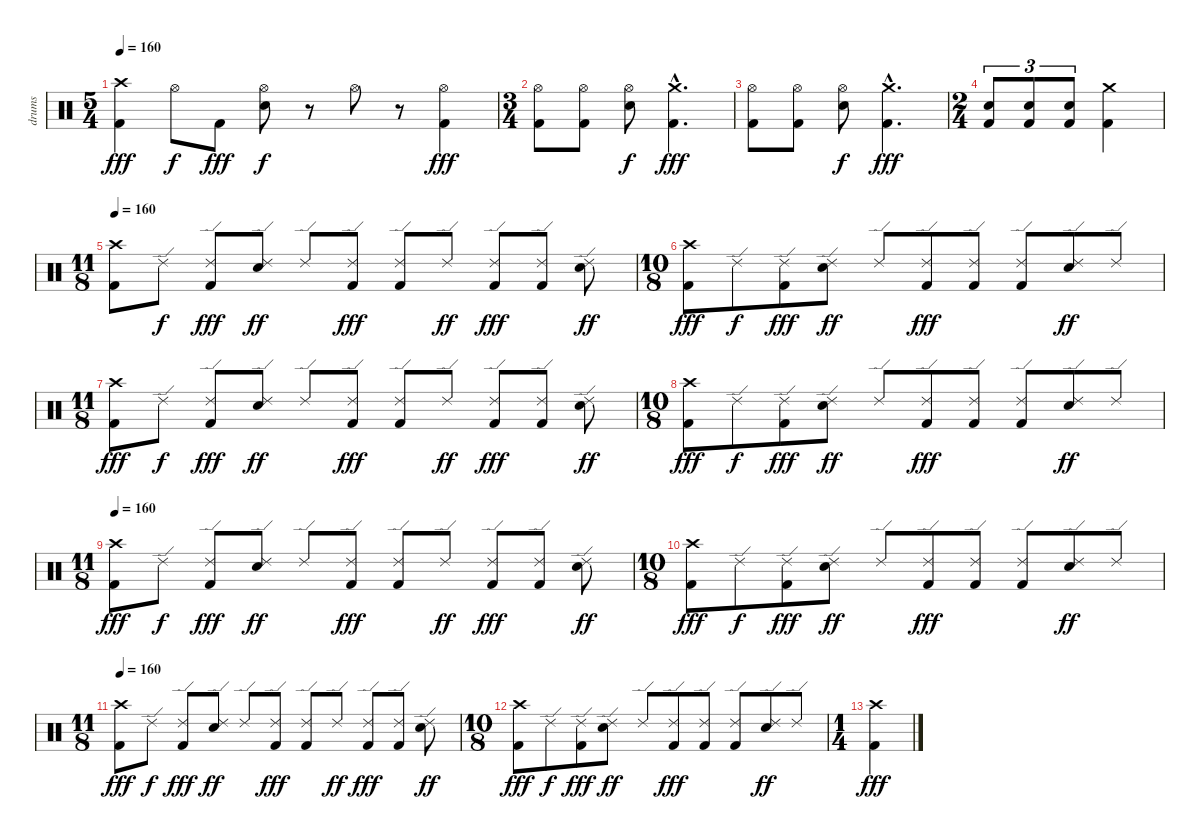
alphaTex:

\track ("drums" "drums") {instrument percussion}
\staff {score}
\articulation defaults
\ts (5 4)
\tempo 160
\clef neutral
\ks c
("Crash high (hit)" "Kick (hit) 2").4{dy fff} "Hi-Hat (open)".8{dy f} "Kick (hit) 2".8{dy fff} ("Hi-Hat (open)" "Snare (hit) 2").8{dy f} r.8 "Hi-Hat (open)".8 r.8 ("Hi-Hat (open)" "Kick (hit) 2").4{dy fff} |
\ts (3 4)
("Hi-Hat (open)" "Kick (hit) 2").8 ("Hi-Hat (open)" "Kick (hit) 2").8 ("Hi-Hat (open)" "Snare (hit) 2").8{dy f} ("Crash medium (hit)"{hac} "Kick (hit) 2"{hac}).4{d dy fff} |
("Hi-Hat (open)" "Kick (hit) 2").8 ("Hi-Hat (open)" "Kick (hit) 2").8 ("Hi-Hat (open)" "Snare (hit) 2").8{dy f} ("Crash medium (hit)"{hac} "Kick (hit) 2"{hac}).4{d dy fff} |
\ts (2 4)
("Snare (hit) 2" "Kick (hit) 2").8{tu (3 2)} ("Snare (hit) 2" "Kick (hit) 2").8{tu (3 2)} ("Snare (hit) 2" "Kick (hit) 2").8{tu (3 2)} ("Crash medium (hit)" "Kick (hit) 2").4 |
\ts (11 8)
\tempo 160
("Crash high (hit)" "Kick (hit) 2").8 "Ride (edge) 2".8{dy f} ("Ride (edge) 2" "Kick (hit) 2").8{dy fff} ("Ride (edge) 2" "Snare (hit) 2").8{dy ff} "Ride (edge) 2".8 ("Ride (edge) 2" "Kick (hit) 2").8{dy fff} ("Ride (edge) 2" "Kick (hit) 2").8 "Ride (edge) 2".8{dy ff} ("Ride (edge) 2" "Kick (hit) 2").8{dy fff} ("Ride (edge) 2" "Kick (hit) 2").8 ("Ride (edge) 2" "Snare (hit) 2").8{dy ff} |
\ts (10 8)
("Crash high (hit)" "Kick (hit) 2").8{dy fff} "Ride (edge) 2".8{dy f} ("Ride (edge) 2" "Kick (hit) 2").8{dy fff} ("Ride (edge) 2" "Snare (hit) 2").8{dy ff} "Ride (edge) 2".8 ("Ride (edge) 2" "Kick (hit) 2").8{dy fff} ("Ride (edge) 2" "Kick (hit) 2").8 ("Ride (edge) 2" "Kick (hit) 2").8 ("Ride (edge) 2" "Snare (hit) 2").8{dy ff} "Ride (edge) 2".8 |
\ts (11 8)
("Crash high (hit)" "Kick (hit) 2").8{dy fff} "Ride (edge) 2".8{dy f} ("Ride (edge) 2" "Kick (hit) 2").8{dy fff} ("Ride (edge) 2" "Snare (hit) 2").8{dy ff} "Ride (edge) 2".8 ("Ride (edge) 2" "Kick (hit) 2").8{dy fff} ("Ride (edge) 2" "Kick (hit) 2").8 "Ride (edge) 2".8{dy ff} ("Ride (edge) 2" "Kick (hit) 2").8{dy fff} ("Ride (edge) 2" "Kick (hit) 2").8 ("Ride (edge) 2" "Snare (hit) 2").8{dy ff} |
\ts (10 8)
("Crash high (hit)" "Kick (hit) 2").8{dy fff} "Ride (edge) 2".8{dy f} ("Ride (edge) 2" "Kick (hit) 2").8{dy fff} ("Ride (edge) 2" "Snare (hit) 2").8{dy ff} "Ride (edge) 2".8 ("Ride (edge) 2" "Kick (hit) 2").8{dy fff} ("Ride (edge) 2" "Kick (hit) 2").8 ("Ride (edge) 2" "Kick (hit) 2").8 ("Ride (edge) 2" "Snare (hit) 2").8{dy ff} "Ride (edge) 2".8 |
\ts (11 8)
\tempo 160
("Crash high (hit)" "Kick (hit) 2").8{dy fff} "Ride (edge) 2".8{dy f} ("Ride (edge) 2" "Kick (hit) 2").8{dy fff} ("Ride (edge) 2" "Snare (hit) 2").8{dy ff} "Ride (edge) 2".8 ("Ride (edge) 2" "Kick (hit) 2").8{dy fff} ("Ride (edge) 2" "Kick (hit) 2").8 "Ride (edge) 2".8{dy ff} ("Ride (edge) 2" "Kick (hit) 2").8{dy fff} ("Ride (edge) 2" "Kick (hit) 2").8 ("Ride (edge) 2" "Snare (hit) 2").8{dy ff} |
\ts (10 8)
("Crash high (hit)" "Kick (hit) 2").8{dy fff} "Ride (edge) 2".8{dy f} ("Ride (edge) 2" "Kick (hit) 2").8{dy fff} ("Ride (edge) 2" "Snare (hit) 2").8{dy ff} "Ride (edge) 2".8 ("Ride (edge) 2" "Kick (hit) 2").8{dy fff} ("Ride (edge) 2" "Kick (hit) 2").8 ("Ride (edge) 2" "Kick (hit) 2").8 ("Ride (edge) 2" "Snare (hit) 2").8{dy ff} "Ride (edge) 2".8 |
\ts (11 8)
\tempo 160
("Crash high (hit)" "Kick (hit) 2").8{dy fff} "Ride (edge) 2".8{dy f} ("Ride (edge) 2" "Kick (hit) 2").8{dy fff} ("Ride (edge) 2" "Snare (hit) 2").8{dy ff} "Ride (edge) 2".8 ("Ride (edge) 2" "Kick (hit) 2").8{dy fff} ("Ride (edge) 2" "Kick (hit) 2").8 "Ride (edge) 2".8{dy ff} ("Ride (edge) 2" "Kick (hit) 2").8{dy fff} ("Ride (edge) 2" "Kick (hit) 2").8 ("Ride (edge) 2" "Snare (hit) 2").8{dy ff} |
\ts (10 8)
("Crash high (hit)" "Kick (hit) 2").8{dy fff} "Ride (edge) 2".8{dy f} ("Ride (edge) 2" "Kick (hit) 2").8{dy fff} ("Ride (edge) 2" "Snare (hit) 2").8{dy ff} "Ride (edge) 2".8 ("Ride (edge) 2" "Kick (hit) 2").8{dy fff} ("Ride (edge) 2" "Kick (hit) 2").8 ("Ride (edge) 2" "Kick (hit) 2").8 ("Ride (edge) 2" "Snare (hit) 2").8{dy ff} "Ride (edge) 2".8 |
\ts (1 4)
("Crash high (hit)" "Kick (hit) 2").4{dy fff}
